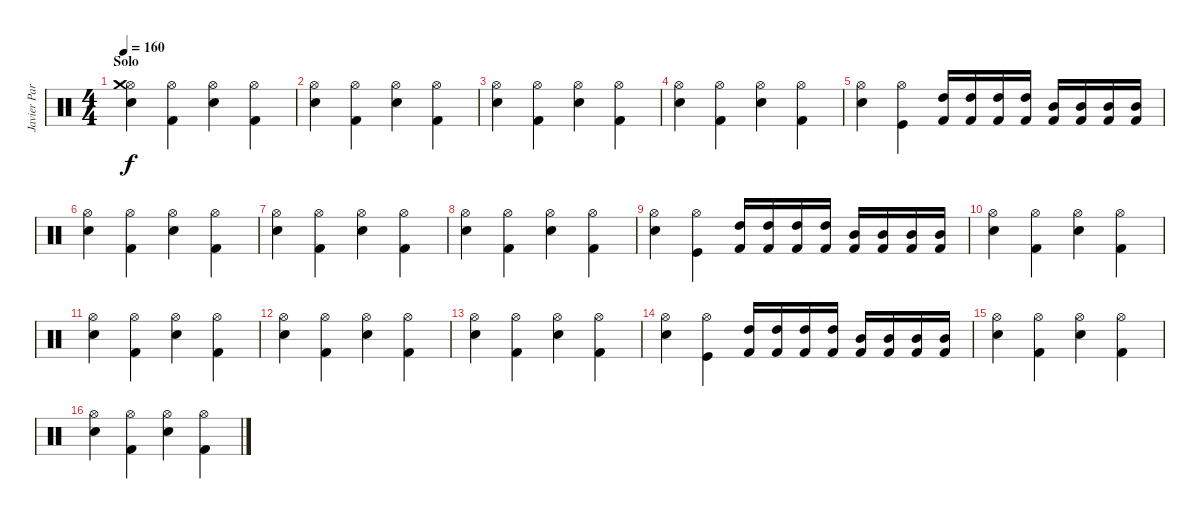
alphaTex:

\track ("Javier Partida" "Javier Par") {instrument percussion}
\staff {score}
\articulation defaults
\ts (4 4)
\section ("" "Solo")
\tempo 160
\clef neutral
\ks c
("Hi-Hat (open)" "Snare (hit) 2" "Crash medium (hit)").4{dy f} ("Hi-Hat (open)" "Kick (hit) 2").4 ("Hi-Hat (open)" "Snare (hit) 2").4 ("Hi-Hat (open)" "Kick (hit) 2").4 |
("Hi-Hat (open)" "Snare (hit) 2").4 ("Hi-Hat (open)" "Kick (hit) 2").4 ("Hi-Hat (open)" "Snare (hit) 2").4 ("Hi-Hat (open)" "Kick (hit) 2").4 |
("Hi-Hat (open)" "Snare (hit) 2").4 ("Hi-Hat (open)" "Kick (hit) 2").4 ("Hi-Hat (open)" "Snare (hit) 2").4 ("Hi-Hat (open)" "Kick (hit) 2").4 |
("Hi-Hat (open)" "Snare (hit) 2").4 ("Hi-Hat (open)" "Kick (hit) 2").4 ("Hi-Hat (open)" "Snare (hit) 2").4 ("Hi-Hat (open)" "Kick (hit) 2").4 |
("Hi-Hat (open)" "Snare (hit) 2").4 ("Hi-Hat (open)" "Kick (hit)").4 ("Kick (hit) 2" "High Tom (hit)").16 ("Kick (hit) 2" "High Tom (hit)").16 ("Kick (hit) 2" "High Tom (hit)").16 ("Kick (hit) 2" "High Tom (hit)").16 ("Kick (hit) 2" "Mid Tom (hit)").16 ("Kick (hit) 2" "Mid Tom (hit)").16 ("Kick (hit) 2" "Mid Tom (hit)").16 ("Kick (hit) 2" "Mid Tom (hit)").16 |
("Hi-Hat (open)" "Snare (hit) 2").4 ("Hi-Hat (open)" "Kick (hit) 2").4 ("Hi-Hat (open)" "Snare (hit) 2").4 ("Hi-Hat (open)" "Kick (hit) 2").4 |
("Hi-Hat (open)" "Snare (hit) 2").4 ("Hi-Hat (open)" "Kick (hit) 2").4 ("Hi-Hat (open)" "Snare (hit) 2").4 ("Hi-Hat (open)" "Kick (hit) 2").4 |
("Hi-Hat (open)" "Snare (hit) 2").4 ("Hi-Hat (open)" "Kick (hit) 2").4 ("Hi-Hat (open)" "Snare (hit) 2").4 ("Hi-Hat (open)" "Kick (hit) 2").4 |
("Hi-Hat (open)" "Snare (hit) 2").4 ("Hi-Hat (open)" "Kick (hit)").4 ("Kick (hit) 2" "High Tom (hit)").16 ("Kick (hit) 2" "High Tom (hit)").16 ("Kick (hit) 2" "High Tom (hit)").16 ("Kick (hit) 2" "High Tom (hit)").16 ("Kick (hit) 2" "Mid Tom (hit)").16 ("Kick (hit) 2" "Mid Tom (hit)").16 ("Kick (hit) 2" "Mid Tom (hit)").16 ("Kick (hit) 2" "Mid Tom (hit)").16 |
("Hi-Hat (open)" "Snare (hit) 2").4 ("Hi-Hat (open)" "Kick (hit) 2").4 ("Hi-Hat (open)" "Snare (hit) 2").4 ("Hi-Hat (open)" "Kick (hit) 2").4 |
("Hi-Hat (open)" "Snare (hit) 2").4 ("Hi-Hat (open)" "Kick (hit) 2").4 ("Hi-Hat (open)" "Snare (hit) 2").4 ("Hi-Hat (open)" "Kick (hit) 2").4 |
("Hi-Hat (open)" "Snare (hit) 2").4 ("Hi-Hat (open)" "Kick (hit) 2").4 ("Hi-Hat (open)" "Snare (hit) 2").4 ("Hi-Hat (open)" "Kick (hit) 2").4 |
("Hi-Hat (open)" "Snare (hit) 2").4 ("Hi-Hat (open)" "Kick (hit) 2").4 ("Hi-Hat (open)" "Snare (hit) 2").4 ("Hi-Hat (open)" "Kick (hit) 2").4 |
("Hi-Hat (open)" "Snare (hit) 2").4 ("Hi-Hat (open)" "Kick (hit)").4 ("Kick (hit) 2" "High Tom (hit)").16 ("Kick (hit) 2" "High Tom (hit)").16 ("Kick (hit) 2" "High Tom (hit)").16 ("Kick (hit) 2" "High Tom (hit)").16 ("Kick (hit) 2" "Mid Tom (hit)").16 ("Kick (hit) 2" "Mid Tom (hit)").16 ("Kick (hit) 2" "Mid Tom (hit)").16 ("Kick (hit) 2" "Mid Tom (hit)").16 |
("Hi-Hat (open)" "Snare (hit) 2").4 ("Hi-Hat (open)" "Kick (hit) 2").4 ("Hi-Hat (open)" "Snare (hit) 2").4 ("Hi-Hat (open)" "Kick (hit) 2").4 |
("Hi-Hat (open)" "Snare (hit) 2").4 ("Hi-Hat (open)" "Kick (hit) 2").4 ("Hi-Hat (open)" "Snare (hit) 2").4 ("Hi-Hat (open)" "Kick (hit) 2").4
